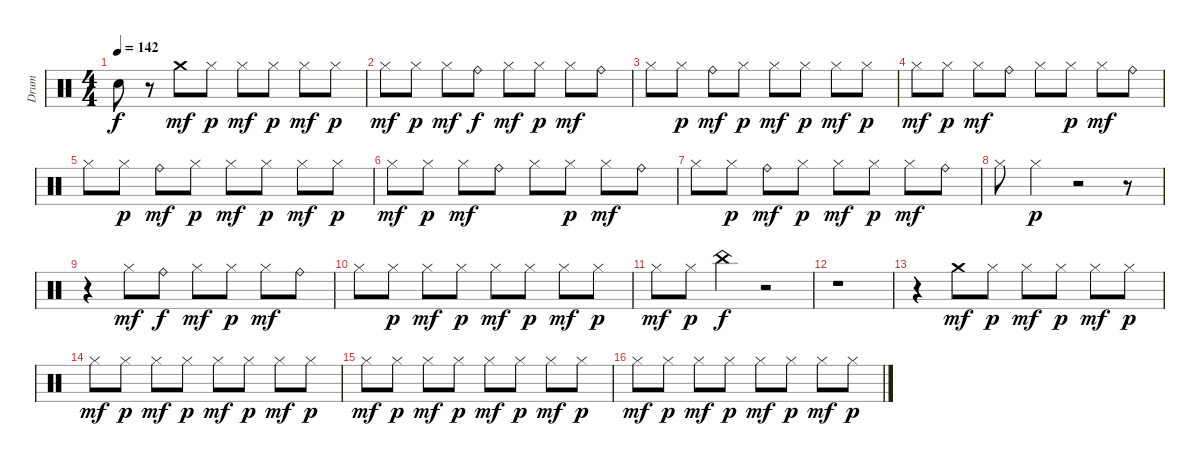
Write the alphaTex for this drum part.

\track ("Drum" "Drum") {instrument percussion}
\staff {score}
\articulation defaults
\ts (4 4)
\tempo 142
\clef neutral
\ks c "Snare (hit)"{t}.8{dy f}
r.8 "Crash medium (hit)".8{dy mf} "Hi-Hat (closed)".8{dy p} "Hi-Hat (closed)".8{dy mf} "Hi-Hat (closed)".8{dy p} "Hi-Hat (closed)".8{dy mf} "Hi-Hat (closed)".8{dy p} |
"Hi-Hat (closed)".8{dy mf} "Hi-Hat (closed)".8{dy p} "Hi-Hat (closed)".8{dy mf} "Ride (bell)".8{dy f} "Hi-Hat (closed)".8{dy mf} "Hi-Hat (closed)".8{dy p} "Hi-Hat (closed)".8{dy mf} "Ride (bell)".8 |
"Hi-Hat (closed)".8 "Hi-Hat (closed)".8{dy p} "Ride (bell)".8{dy mf} "Hi-Hat (closed)".8{dy p} "Hi-Hat (closed)".8{dy mf} "Hi-Hat (closed)".8{dy p} "Hi-Hat (closed)".8{dy mf} "Hi-Hat (closed)".8{dy p} |
"Hi-Hat (closed)".8{dy mf} "Hi-Hat (closed)".8{dy p} "Hi-Hat (closed)".8{dy mf} "Ride (bell)".8 "Hi-Hat (closed)".8 "Hi-Hat (closed)".8{dy p} "Hi-Hat (closed)".8{dy mf} "Ride (bell)".8 |
"Hi-Hat (closed)".8 "Hi-Hat (closed)".8{dy p} "Ride (bell)".8{dy mf} "Hi-Hat (closed)".8{dy p} "Hi-Hat (closed)".8{dy mf} "Hi-Hat (closed)".8{dy p} "Hi-Hat (closed)".8{dy mf} "Hi-Hat (closed)".8{dy p} |
"Hi-Hat (closed)".8{dy mf} "Hi-Hat (closed)".8{dy p} "Hi-Hat (closed)".8{dy mf} "Ride (bell)".8 "Hi-Hat (closed)".8 "Hi-Hat (closed)".8{dy p} "Hi-Hat (closed)".8{dy mf} "Ride (bell)".8 |
"Hi-Hat (closed)".8 "Hi-Hat (closed)".8{dy p} "Ride (bell)".8{dy mf} "Hi-Hat (closed)".8{dy p} "Hi-Hat (closed)".8{dy mf} "Hi-Hat (closed)".8{dy p} "Hi-Hat (closed)".8{dy mf} "Ride (bell)".8 |
"Hi-Hat (closed)".8 "Hi-Hat (closed)".4{dy p} r.2 r.8 |
r.4 "Hi-Hat (closed)".8{dy mf} "Ride (bell)".8{dy f} "Hi-Hat (closed)".8{dy mf} "Hi-Hat (closed)".8{dy p} "Hi-Hat (closed)".8{dy mf} "Ride (bell)".8 |
"Hi-Hat (closed)".8 "Hi-Hat (closed)".8{dy p} "Hi-Hat (closed)".8{dy mf} "Hi-Hat (closed)".8{dy p} "Hi-Hat (closed)".8{dy mf} "Hi-Hat (closed)".8{dy p} "Hi-Hat (closed)".8{dy mf} "Hi-Hat (closed)".8{dy p} |
"Hi-Hat (closed)".8{dy mf} "Hi-Hat (closed)".8{dy p} "China (hit)".4{dy f} r.2 |
r.1 |
r.4 "Crash medium (hit)".8{dy mf} "Hi-Hat (closed)".8{dy p} "Hi-Hat (closed)".8{dy mf} "Hi-Hat (closed)".8{dy p} "Hi-Hat (closed)".8{dy mf} "Hi-Hat (closed)".8{dy p} |
"Hi-Hat (closed)".8{dy mf} "Hi-Hat (closed)".8{dy p} "Hi-Hat (closed)".8{dy mf} "Hi-Hat (closed)".8{dy p} "Hi-Hat (closed)".8{dy mf} "Hi-Hat (closed)".8{dy p} "Hi-Hat (closed)".8{dy mf} "Hi-Hat (closed)".8{dy p} |
"Hi-Hat (closed)".8{dy mf} "Hi-Hat (closed)".8{dy p} "Hi-Hat (closed)".8{dy mf} "Hi-Hat (closed)".8{dy p} "Hi-Hat (closed)".8{dy mf} "Hi-Hat (closed)".8{dy p} "Hi-Hat (closed)".8{dy mf} "Hi-Hat (closed)".8{dy p} |
"Hi-Hat (closed)".8{dy mf} "Hi-Hat (closed)".8{dy p} "Hi-Hat (closed)".8{dy mf} "Hi-Hat (closed)".8{dy p} "Hi-Hat (closed)".8{dy mf} "Hi-Hat (closed)".8{dy p} "Hi-Hat (closed)".8{dy mf} "Hi-Hat (closed)".8{dy p}
